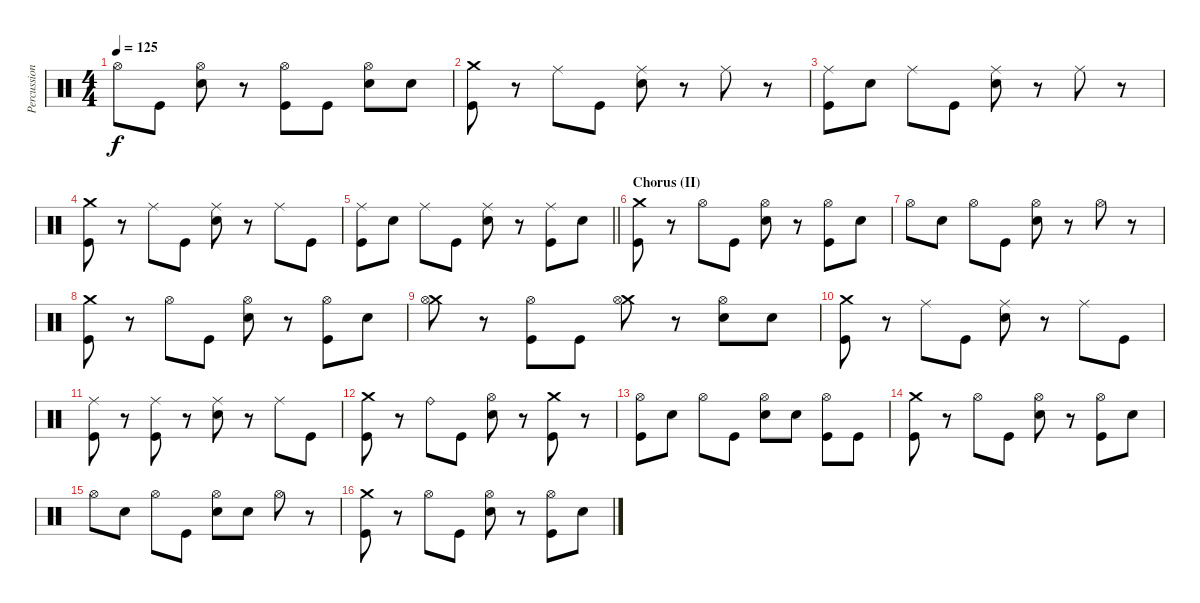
\track ("Percussion" "Percussion") {instrument percussion}
\staff {score}
\articulation defaults
\ts (4 4)
\tempo 125
\clef neutral
\ks c "Hi-Hat (open)".8{dy f} "Kick (hit)".8
("Hi-Hat (open)" "Snare (hit) 2").8 r.8 ("Hi-Hat (open)" "Kick (hit)").8 "Kick (hit)".8 ("Hi-Hat (open)" "Snare (hit) 2").8 "Snare (hit) 2".8 |
("Crash medium (hit)" "Kick (hit)").8 r.8 "Ride (middle)".8 "Kick (hit)".8 ("Ride (middle)" "Snare (hit) 2").8 r.8 "Ride (middle)".8 r.8 |
("Ride (middle)" "Kick (hit)").8 "Snare (hit) 2".8 "Ride (middle)".8 "Kick (hit)".8 ("Ride (middle)" "Snare (hit) 2").8 r.8 "Ride (middle)".8 r.8 |
("Crash medium (hit)" "Kick (hit)").8 r.8 "Ride (middle)".8 "Kick (hit)".8 ("Ride (middle)" "Snare (hit) 2").8 r.8 "Ride (middle)".8 "Kick (hit)".8 |
\barLineRight lightlight
("Ride (middle)" "Kick (hit)").8 "Snare (hit) 2".8 "Ride (middle)".8 "Kick (hit)".8 ("Ride (middle)" "Snare (hit) 2").8 r.8 ("Ride (middle)" "Kick (hit)").8 "Snare (hit) 2".8 |
\section ("" "Chorus (II)")
("Crash medium (hit)" "Kick (hit)").8 r.8 "Hi-Hat (open)".8 "Kick (hit)".8 ("Hi-Hat (open)" "Snare (hit) 2").8 r.8 ("Hi-Hat (open)" "Kick (hit)").8 "Snare (hit) 2".8 |
"Hi-Hat (open)".8 "Snare (hit) 2".8 "Hi-Hat (open)".8 "Kick (hit)".8 ("Hi-Hat (open)" "Snare (hit) 2").8 r.8 "Hi-Hat (open)".8 r.8 |
("Crash medium (hit)" "Kick (hit)").8 r.8 "Hi-Hat (open)".8 "Kick (hit)".8 ("Hi-Hat (open)" "Snare (hit) 2").8 r.8 ("Hi-Hat (open)" "Kick (hit)").8 "Snare (hit) 2".8 |
("Crash medium (hit)" "Hi-Hat (open)").8 r.8 ("Hi-Hat (open)" "Kick (hit)").8 "Kick (hit)".8 ("Crash medium (hit)" "Hi-Hat (open)").8 r.8 ("Hi-Hat (open)" "Snare (hit) 2").8 "Snare (hit) 2".8 |
("Crash medium (hit)" "Kick (hit)").8 r.8 "Ride (middle)".8 "Kick (hit)".8 ("Ride (middle)" "Snare (hit) 2").8 r.8 "Ride (middle)".8 "Kick (hit)".8 |
("Ride (middle)" "Kick (hit)").8 r.8 ("Ride (middle)" "Kick (hit)").8 r.8 ("Ride (middle)" "Snare (hit) 2").8 r.8 "Ride (middle)".8 "Kick (hit)".8 |
("Crash medium (hit)" "Kick (hit)").8 r.8 "Ride (bell)".8 "Kick (hit)".8 ("Hi-Hat (open)" "Snare (hit) 2").8 r.8 ("Crash medium (hit)" "Kick (hit)").8 r.8 |
("Hi-Hat (open)" "Kick (hit)").8 "Snare (hit) 2".8 "Hi-Hat (open)".8 "Kick (hit)".8 ("Hi-Hat (open)" "Snare (hit) 2").8 "Snare (hit) 2".8 ("Hi-Hat (open)" "Kick (hit)").8 "Kick (hit)".8 |
("Crash medium (hit)" "Kick (hit)").8 r.8 "Hi-Hat (open)".8 "Kick (hit)".8 ("Hi-Hat (open)" "Snare (hit) 2").8 r.8 ("Hi-Hat (open)" "Kick (hit)").8 "Snare (hit) 2".8 |
"Hi-Hat (open)".8 "Snare (hit) 2".8 "Hi-Hat (open)".8 "Kick (hit)".8 ("Hi-Hat (open)" "Snare (hit) 2").8 "Snare (hit) 2".8 "Hi-Hat (open)".8 r.8 |
("Crash medium (hit)" "Kick (hit)").8 r.8 "Hi-Hat (open)".8 "Kick (hit)".8 ("Hi-Hat (open)" "Snare (hit) 2").8 r.8 ("Hi-Hat (open)" "Kick (hit)").8 "Snare (hit) 2".8
